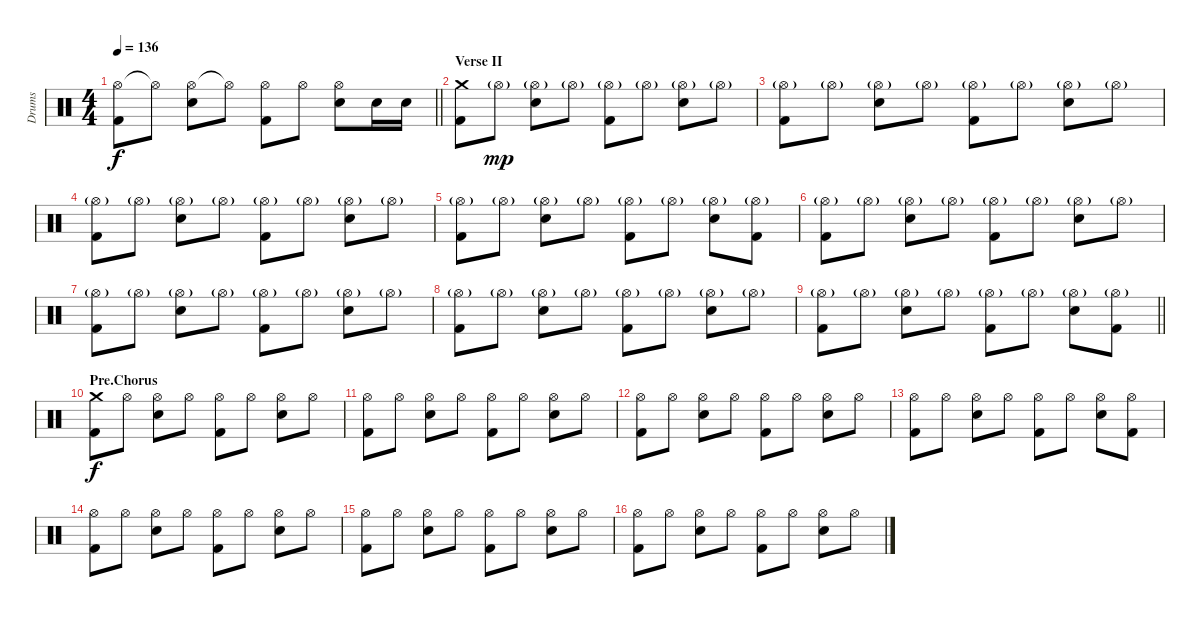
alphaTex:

\track ("Drums" "Drums") {instrument percussion}
\staff {score}
\articulation defaults
\ts (4 4)
\tempo 136
\clef neutral
\barLineRight lightlight
\ks c
("Hi-Hat (open)" "Kick (hit) 2").8{dy f} "Hi-Hat (open)"{t}.8 ("Hi-Hat (open)" "Electric Snare (hit)").8 "Hi-Hat (open)"{t}.8 ("Hi-Hat (open)" "Kick (hit) 2").8 "Hi-Hat (open)".8 ("Hi-Hat (open)" "Electric Snare (hit)").8 "Electric Snare (hit)".16 "Electric Snare (hit)".16 |
\section ("" "Verse II")
("Crash medium (hit)" "Kick (hit) 2").8 "Hi-Hat (open)"{g}.8{dy mp} ("Hi-Hat (open)"{g} "Electric Snare (hit)").8 "Hi-Hat (open)"{g}.8 ("Hi-Hat (open)"{g} "Kick (hit) 2").8 "Hi-Hat (open)"{g}.8 ("Hi-Hat (open)"{g} "Electric Snare (hit)").8 "Hi-Hat (open)"{g}.8 |
("Hi-Hat (open)"{g} "Kick (hit) 2").8 "Hi-Hat (open)"{g}.8 ("Hi-Hat (open)"{g} "Electric Snare (hit)").8 "Hi-Hat (open)"{g}.8 ("Hi-Hat (open)"{g} "Kick (hit) 2").8 "Hi-Hat (open)"{g}.8 ("Hi-Hat (open)"{g} "Electric Snare (hit)").8 "Hi-Hat (open)"{g}.8 |
("Hi-Hat (open)"{g} "Kick (hit) 2").8 "Hi-Hat (open)"{g}.8 ("Hi-Hat (open)"{g} "Electric Snare (hit)").8 "Hi-Hat (open)"{g}.8 ("Hi-Hat (open)"{g} "Kick (hit) 2").8 "Hi-Hat (open)"{g}.8 ("Hi-Hat (open)"{g} "Electric Snare (hit)").8 "Hi-Hat (open)"{g}.8 |
("Hi-Hat (open)"{g} "Kick (hit) 2").8 "Hi-Hat (open)"{g}.8 ("Hi-Hat (open)"{g} "Electric Snare (hit)").8 "Hi-Hat (open)"{g}.8 ("Hi-Hat (open)"{g} "Kick (hit) 2").8 "Hi-Hat (open)"{g}.8 ("Hi-Hat (open)"{g} "Electric Snare (hit)").8 ("Hi-Hat (open)"{g} "Kick (hit) 2").8 |
("Hi-Hat (open)"{g} "Kick (hit) 2").8 "Hi-Hat (open)"{g}.8 ("Hi-Hat (open)"{g} "Electric Snare (hit)").8 "Hi-Hat (open)"{g}.8 ("Hi-Hat (open)"{g} "Kick (hit) 2").8 "Hi-Hat (open)"{g}.8 ("Hi-Hat (open)"{g} "Electric Snare (hit)").8 "Hi-Hat (open)"{g}.8 |
("Hi-Hat (open)"{g} "Kick (hit) 2").8 "Hi-Hat (open)"{g}.8 ("Hi-Hat (open)"{g} "Electric Snare (hit)").8 "Hi-Hat (open)"{g}.8 ("Hi-Hat (open)"{g} "Kick (hit) 2").8 "Hi-Hat (open)"{g}.8 ("Hi-Hat (open)"{g} "Electric Snare (hit)").8 "Hi-Hat (open)"{g}.8 |
("Hi-Hat (open)"{g} "Kick (hit) 2").8 "Hi-Hat (open)"{g}.8 ("Hi-Hat (open)"{g} "Electric Snare (hit)").8 "Hi-Hat (open)"{g}.8 ("Hi-Hat (open)"{g} "Kick (hit) 2").8 "Hi-Hat (open)"{g}.8 ("Hi-Hat (open)"{g} "Electric Snare (hit)").8 "Hi-Hat (open)"{g}.8 |
\barLineRight lightlight
("Hi-Hat (open)"{g} "Kick (hit) 2").8 "Hi-Hat (open)"{g}.8 ("Hi-Hat (open)"{g} "Electric Snare (hit)").8 "Hi-Hat (open)"{g}.8 ("Hi-Hat (open)"{g} "Kick (hit) 2").8 "Hi-Hat (open)"{g}.8 ("Hi-Hat (open)"{g} "Electric Snare (hit)").8 ("Hi-Hat (open)"{g} "Kick (hit) 2").8 |
\section ("" "Pre.Chorus")
("Crash medium (hit)" "Kick (hit) 2").8{dy f} "Hi-Hat (open)".8 ("Hi-Hat (open)" "Electric Snare (hit)").8 "Hi-Hat (open)".8 ("Hi-Hat (open)" "Kick (hit) 2").8 "Hi-Hat (open)".8 ("Hi-Hat (open)" "Electric Snare (hit)").8 "Hi-Hat (open)".8 |
("Hi-Hat (open)" "Kick (hit) 2").8 "Hi-Hat (open)".8 ("Hi-Hat (open)" "Electric Snare (hit)").8 "Hi-Hat (open)".8 ("Hi-Hat (open)" "Kick (hit) 2").8 "Hi-Hat (open)".8 ("Hi-Hat (open)" "Electric Snare (hit)").8 "Hi-Hat (open)".8 |
("Hi-Hat (open)" "Kick (hit) 2").8 "Hi-Hat (open)".8 ("Hi-Hat (open)" "Electric Snare (hit)").8 "Hi-Hat (open)".8 ("Hi-Hat (open)" "Kick (hit) 2").8 "Hi-Hat (open)".8 ("Hi-Hat (open)" "Electric Snare (hit)").8 "Hi-Hat (open)".8 |
("Hi-Hat (open)" "Kick (hit) 2").8 "Hi-Hat (open)".8 ("Hi-Hat (open)" "Electric Snare (hit)").8 "Hi-Hat (open)".8 ("Hi-Hat (open)" "Kick (hit) 2").8 "Hi-Hat (open)".8 ("Hi-Hat (open)" "Electric Snare (hit)").8 ("Hi-Hat (open)" "Kick (hit) 2").8 |
("Hi-Hat (open)" "Kick (hit) 2").8 "Hi-Hat (open)".8 ("Hi-Hat (open)" "Electric Snare (hit)").8 "Hi-Hat (open)".8 ("Hi-Hat (open)" "Kick (hit) 2").8 "Hi-Hat (open)".8 ("Hi-Hat (open)" "Electric Snare (hit)").8 "Hi-Hat (open)".8 |
("Hi-Hat (open)" "Kick (hit) 2").8 "Hi-Hat (open)".8 ("Hi-Hat (open)" "Electric Snare (hit)").8 "Hi-Hat (open)".8 ("Hi-Hat (open)" "Kick (hit) 2").8 "Hi-Hat (open)".8 ("Hi-Hat (open)" "Electric Snare (hit)").8 "Hi-Hat (open)".8 |
("Hi-Hat (open)" "Kick (hit) 2").8 "Hi-Hat (open)".8 ("Hi-Hat (open)" "Electric Snare (hit)").8 "Hi-Hat (open)".8 ("Hi-Hat (open)" "Kick (hit) 2").8 "Hi-Hat (open)".8 ("Hi-Hat (open)" "Electric Snare (hit)").8 "Hi-Hat (open)".8
